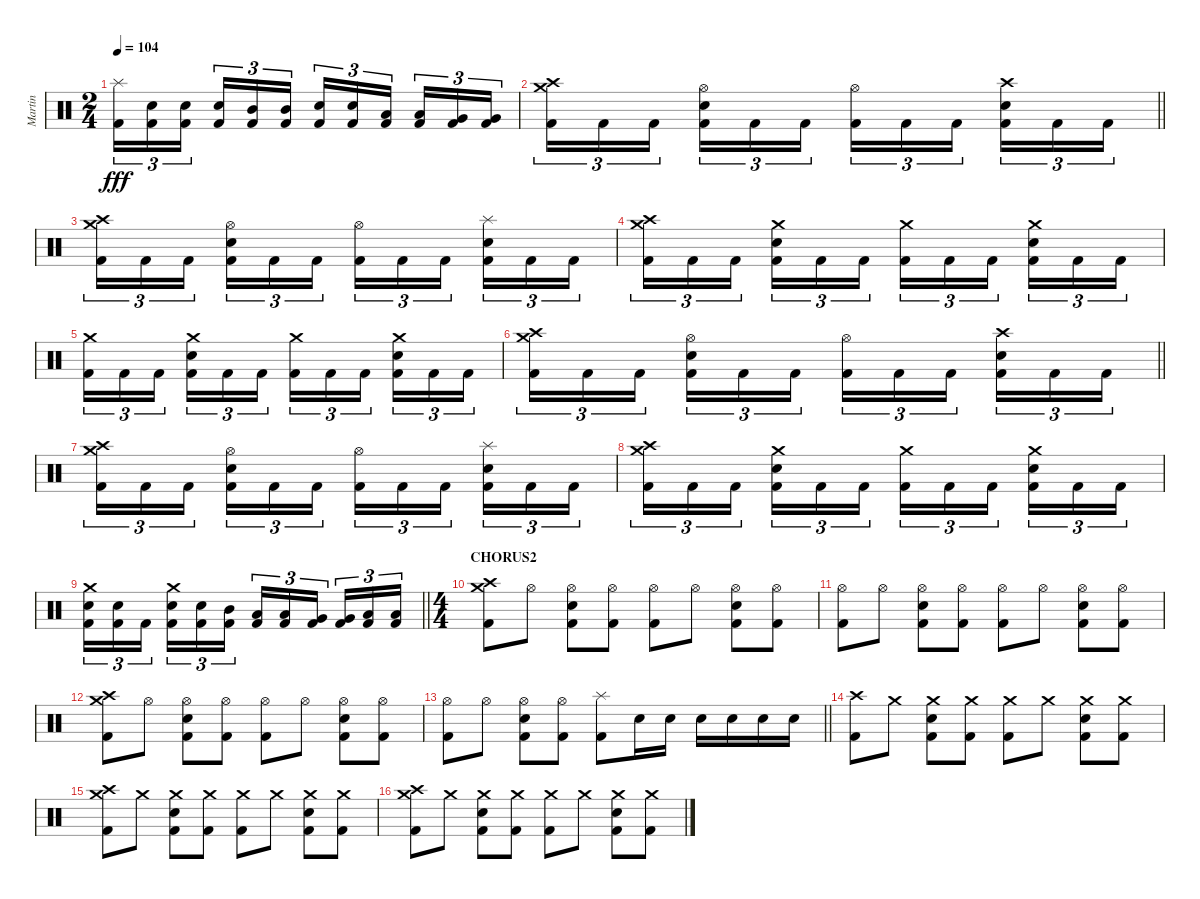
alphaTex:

\track ("Martin" "Martin") {instrument percussion}
\staff {score}
\articulation defaults
\ts (2 4)
\tempo 104
\clef neutral
\ks c
("Splash (hit)" "Kick (hit) 2").16{tu (3 2) dy fff} ("Electric Snare (hit)" "Kick (hit) 2").16{tu (3 2)} ("Electric Snare (hit)" "Kick (hit) 2").16{tu (3 2) beam splitsecondary} ("Electric Snare (hit)" "Kick (hit) 2").16{tu (3 2)} ("Mid Tom (hit)" "Kick (hit) 2").16{tu (3 2)} ("Mid Tom (hit)" "Kick (hit) 2").16{tu (3 2)} ("Electric Snare (hit)" "Kick (hit) 2").16{tu (3 2)} ("Electric Snare (hit)" "Kick (hit) 2").16{tu (3 2)} ("Low Tom (hit)" "Kick (hit) 2").16{tu (3 2) beam splitsecondary} ("Low Tom (hit)" "Kick (hit) 2").16{tu (3 2)} ("Very Low Tom (hit)" "Kick (hit) 2").16{tu (3 2)} ("Very Low Tom (hit)" "Kick (hit) 2").16{tu (3 2)} |
\barLineRight lightlight
("Crash high (hit)" "Crash medium (hit)" "Kick (hit) 2").16{tu (3 2)} "Kick (hit) 2".16{tu (3 2)} "Kick (hit) 2".16{tu (3 2) beam splitsecondary} ("Hi-Hat (open)" "Electric Snare (hit)" "Kick (hit) 2").16{tu (3 2)} "Kick (hit) 2".16{tu (3 2)} "Kick (hit) 2".16{tu (3 2)} ("Hi-Hat (open)" "Kick (hit) 2").16{tu (3 2)} "Kick (hit) 2".16{tu (3 2)} "Kick (hit) 2".16{tu (3 2) beam splitsecondary} ("Crash high (hit)" "Electric Snare (hit)" "Kick (hit) 2").16{tu (3 2)} "Kick (hit) 2".16{tu (3 2)} "Kick (hit) 2".16{tu (3 2)} |
("Crash high (hit)" "Crash medium (hit)" "Kick (hit) 2").16{tu (3 2)} "Kick (hit) 2".16{tu (3 2)} "Kick (hit) 2".16{tu (3 2) beam splitsecondary} ("Hi-Hat (open)" "Electric Snare (hit)" "Kick (hit) 2").16{tu (3 2)} "Kick (hit) 2".16{tu (3 2)} "Kick (hit) 2".16{tu (3 2)} ("Hi-Hat (open)" "Kick (hit) 2").16{tu (3 2)} "Kick (hit) 2".16{tu (3 2)} "Kick (hit) 2".16{tu (3 2) beam splitsecondary} ("Splash (hit)" "Electric Snare (hit)" "Kick (hit) 2").16{tu (3 2)} "Kick (hit) 2".16{tu (3 2)} "Kick (hit) 2".16{tu (3 2)} |
("Crash high (hit)" "Crash medium (hit)" "Kick (hit) 2").16{tu (3 2)} "Kick (hit) 2".16{tu (3 2)} "Kick (hit) 2".16{tu (3 2) beam splitsecondary} ("Crash medium (hit)" "Electric Snare (hit)" "Kick (hit) 2").16{tu (3 2)} "Kick (hit) 2".16{tu (3 2)} "Kick (hit) 2".16{tu (3 2)} ("Crash medium (hit)" "Kick (hit) 2").16{tu (3 2)} "Kick (hit) 2".16{tu (3 2)} "Kick (hit) 2".16{tu (3 2) beam splitsecondary} ("Crash medium (hit)" "Electric Snare (hit)" "Kick (hit) 2").16{tu (3 2)} "Kick (hit) 2".16{tu (3 2)} "Kick (hit) 2".16{tu (3 2)} |
("Crash medium (hit)" "Kick (hit) 2").16{tu (3 2)} "Kick (hit) 2".16{tu (3 2)} "Kick (hit) 2".16{tu (3 2) beam splitsecondary} ("Crash medium (hit)" "Electric Snare (hit)" "Kick (hit) 2").16{tu (3 2)} "Kick (hit) 2".16{tu (3 2)} "Kick (hit) 2".16{tu (3 2)} ("Crash medium (hit)" "Kick (hit) 2").16{tu (3 2)} "Kick (hit) 2".16{tu (3 2)} "Kick (hit) 2".16{tu (3 2) beam splitsecondary} ("Crash medium (hit)" "Electric Snare (hit)" "Kick (hit) 2").16{tu (3 2)} "Kick (hit) 2".16{tu (3 2)} "Kick (hit) 2".16{tu (3 2)} |
\barLineRight lightlight
("Crash high (hit)" "Crash medium (hit)" "Kick (hit) 2").16{tu (3 2)} "Kick (hit) 2".16{tu (3 2)} "Kick (hit) 2".16{tu (3 2) beam splitsecondary} ("Hi-Hat (open)" "Electric Snare (hit)" "Kick (hit) 2").16{tu (3 2)} "Kick (hit) 2".16{tu (3 2)} "Kick (hit) 2".16{tu (3 2)} ("Hi-Hat (open)" "Kick (hit) 2").16{tu (3 2)} "Kick (hit) 2".16{tu (3 2)} "Kick (hit) 2".16{tu (3 2) beam splitsecondary} ("Crash high (hit)" "Electric Snare (hit)" "Kick (hit) 2").16{tu (3 2)} "Kick (hit) 2".16{tu (3 2)} "Kick (hit) 2".16{tu (3 2)} |
("Crash high (hit)" "Crash medium (hit)" "Kick (hit) 2").16{tu (3 2)} "Kick (hit) 2".16{tu (3 2)} "Kick (hit) 2".16{tu (3 2) beam splitsecondary} ("Hi-Hat (open)" "Electric Snare (hit)" "Kick (hit) 2").16{tu (3 2)} "Kick (hit) 2".16{tu (3 2)} "Kick (hit) 2".16{tu (3 2)} ("Hi-Hat (open)" "Kick (hit) 2").16{tu (3 2)} "Kick (hit) 2".16{tu (3 2)} "Kick (hit) 2".16{tu (3 2) beam splitsecondary} ("Splash (hit)" "Electric Snare (hit)" "Kick (hit) 2").16{tu (3 2)} "Kick (hit) 2".16{tu (3 2)} "Kick (hit) 2".16{tu (3 2)} |
("Crash high (hit)" "Crash medium (hit)" "Kick (hit) 2").16{tu (3 2)} "Kick (hit) 2".16{tu (3 2)} "Kick (hit) 2".16{tu (3 2) beam splitsecondary} ("Crash medium (hit)" "Electric Snare (hit)" "Kick (hit) 2").16{tu (3 2)} "Kick (hit) 2".16{tu (3 2)} "Kick (hit) 2".16{tu (3 2)} ("Crash medium (hit)" "Kick (hit) 2").16{tu (3 2)} "Kick (hit) 2".16{tu (3 2)} "Kick (hit) 2".16{tu (3 2) beam splitsecondary} ("Crash medium (hit)" "Electric Snare (hit)" "Kick (hit) 2").16{tu (3 2)} "Kick (hit) 2".16{tu (3 2)} "Kick (hit) 2".16{tu (3 2)} |
\barLineRight lightlight
("Crash medium (hit)" "Electric Snare (hit)" "Kick (hit) 2").16{tu (3 2)} ("Electric Snare (hit)" "Kick (hit) 2").16{tu (3 2)} "Kick (hit) 2".16{tu (3 2) beam splitsecondary} ("Crash medium (hit)" "Electric Snare (hit)" "Kick (hit) 2").16{tu (3 2)} ("Electric Snare (hit)" "Kick (hit) 2").16{tu (3 2)} ("Mid Tom (hit)" "Kick (hit) 2").16{tu (3 2)} ("Low Tom (hit)" "Kick (hit) 2").16{tu (3 2)} ("Low Tom (hit)" "Kick (hit) 2").16{tu (3 2)} ("Very Low Tom (hit)" "Kick (hit) 2").16{tu (3 2) beam splitsecondary} ("Very Low Tom (hit)" "Kick (hit) 2").16{tu (3 2)} ("Low Floor Tom (hit)" "Kick (hit) 2").16{tu (3 2)} ("Low Floor Tom (hit)" "Kick (hit) 2").16{tu (3 2)} |
\ts (4 4)
\section ("" "CHORUS2")
("Crash high (hit)" "Crash medium (hit)" "Kick (hit) 2").8 "Hi-Hat (open)".8 ("Hi-Hat (open)" "Electric Snare (hit)" "Kick (hit) 2").8 ("Hi-Hat (open)" "Kick (hit) 2").8 ("Hi-Hat (open)" "Kick (hit) 2").8 "Hi-Hat (open)".8 ("Hi-Hat (open)" "Electric Snare (hit)" "Kick (hit) 2").8 ("Hi-Hat (open)" "Kick (hit) 2").8 |
("Hi-Hat (open)" "Kick (hit) 2").8 "Hi-Hat (open)".8 ("Hi-Hat (open)" "Electric Snare (hit)" "Kick (hit) 2").8 ("Hi-Hat (open)" "Kick (hit) 2").8 ("Hi-Hat (open)" "Kick (hit) 2").8 "Hi-Hat (open)".8 ("Hi-Hat (open)" "Electric Snare (hit)" "Kick (hit) 2").8 ("Hi-Hat (open)" "Kick (hit) 2").8 |
("Crash high (hit)" "Crash medium (hit)" "Kick (hit) 2").8 "Hi-Hat (open)".8 ("Hi-Hat (open)" "Electric Snare (hit)" "Kick (hit) 2").8 ("Hi-Hat (open)" "Kick (hit) 2").8 ("Hi-Hat (open)" "Kick (hit) 2").8 "Hi-Hat (open)".8 ("Hi-Hat (open)" "Electric Snare (hit)" "Kick (hit) 2").8 ("Hi-Hat (open)" "Kick (hit) 2").8 |
\barLineRight lightlight
("Hi-Hat (open)" "Kick (hit) 2").8 "Hi-Hat (open)".8 ("Hi-Hat (open)" "Electric Snare (hit)" "Kick (hit) 2").8 ("Hi-Hat (open)" "Kick (hit) 2").8 ("Splash (hit)" "Kick (hit) 2").8 "Electric Snare (hit)".16 "Electric Snare (hit)".16 "Electric Snare (hit)".16 "Electric Snare (hit)".16 "Electric Snare (hit)".16 "Electric Snare (hit)".16 |
("Crash high (hit)" "Kick (hit) 2").8 "Crash medium (hit)".8 ("Crash medium (hit)" "Electric Snare (hit)" "Kick (hit) 2").8 ("Crash medium (hit)" "Kick (hit) 2").8 ("Crash medium (hit)" "Kick (hit) 2").8 "Crash medium (hit)".8 ("Crash medium (hit)" "Electric Snare (hit)" "Kick (hit) 2").8 ("Crash medium (hit)" "Kick (hit) 2").8 |
("Crash high (hit)" "Crash medium (hit)" "Kick (hit) 2").8 "Crash medium (hit)".8 ("Crash medium (hit)" "Electric Snare (hit)" "Kick (hit) 2").8 ("Crash medium (hit)" "Kick (hit) 2").8 ("Crash medium (hit)" "Kick (hit) 2").8 "Crash medium (hit)".8 ("Crash medium (hit)" "Electric Snare (hit)" "Kick (hit) 2").8 ("Crash medium (hit)" "Kick (hit) 2").8 |
("Crash high (hit)" "Crash medium (hit)" "Kick (hit) 2").8 "Crash medium (hit)".8 ("Crash medium (hit)" "Electric Snare (hit)" "Kick (hit) 2").8 ("Crash medium (hit)" "Kick (hit) 2").8 ("Crash medium (hit)" "Kick (hit) 2").8 "Crash medium (hit)".8 ("Crash medium (hit)" "Electric Snare (hit)" "Kick (hit) 2").8 ("Crash medium (hit)" "Kick (hit) 2").8
